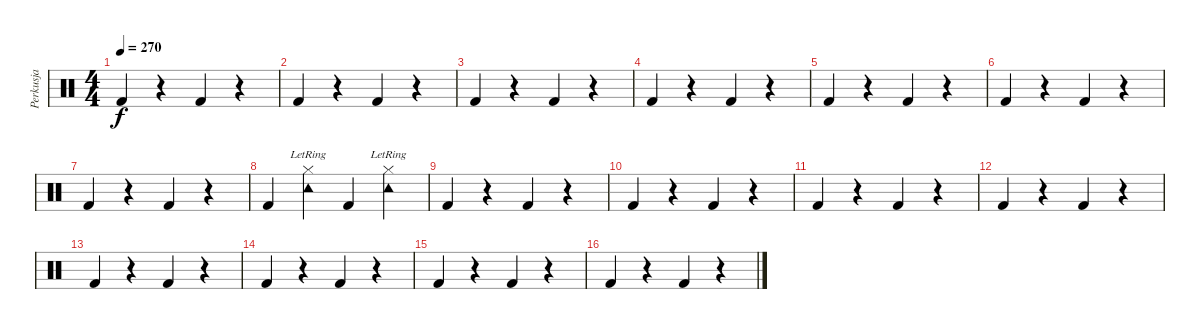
\track ("Perkusja" "Perkusja") {instrument percussion}
\staff {score}
\articulation defaults
\ts (4 4)
\tempo 270
\clef neutral
\ks c "Kick (hit) 2".4{dy f}
r.4 "Kick (hit) 2".4 r.4 |
"Kick (hit) 2".4 r.4 "Kick (hit) 2".4 r.4 |
"Kick (hit) 2".4 r.4 "Kick (hit) 2".4 r.4 |
"Kick (hit) 2".4 r.4 "Kick (hit) 2".4 r.4 |
"Kick (hit) 2".4 r.4 "Kick (hit) 2".4 r.4 |
"Kick (hit) 2".4 r.4 "Kick (hit) 2".4 r.4 |
"Kick (hit) 2".4 r.4 "Kick (hit) 2".4 r.4 |
"Kick (hit) 2".4 ("Tambourine (hit)"{lr} "Hi-Hat (closed)"{lr}).4 "Kick (hit) 2".4 ("Tambourine (hit)"{lr} "Hi-Hat (closed)"{lr}).4 |
"Kick (hit) 2".4 r.4 "Kick (hit) 2".4 r.4 |
"Kick (hit) 2".4 r.4 "Kick (hit) 2".4 r.4 |
"Kick (hit) 2".4 r.4 "Kick (hit) 2".4 r.4 |
"Kick (hit) 2".4 r.4 "Kick (hit) 2".4 r.4 |
"Kick (hit) 2".4 r.4 "Kick (hit) 2".4 r.4 |
"Kick (hit) 2".4 r.4 "Kick (hit) 2".4 r.4 |
"Kick (hit) 2".4 r.4 "Kick (hit) 2".4 r.4 |
"Kick (hit) 2".4 r.4 "Kick (hit) 2".4 r.4
